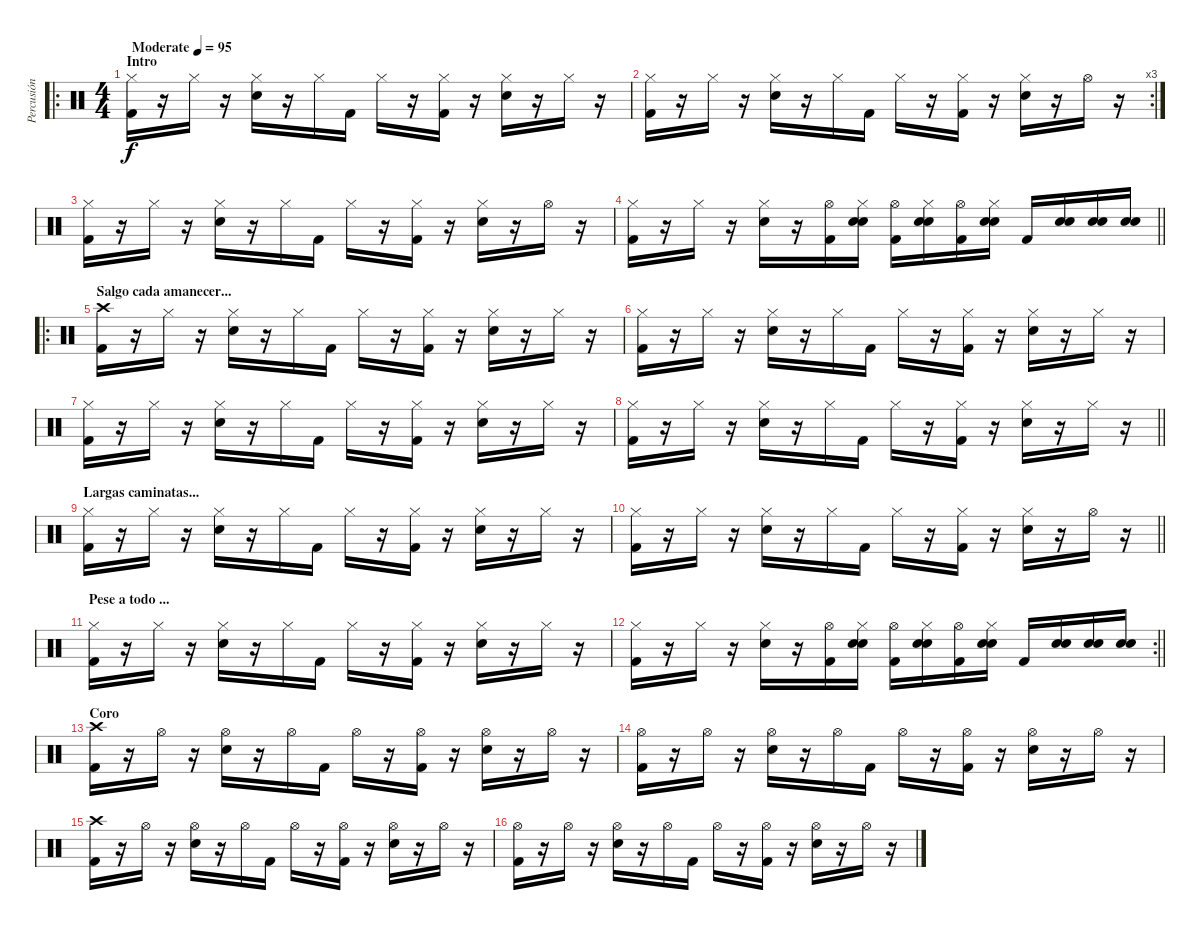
\track ("Percusión" "Percusión") {instrument percussion}
\staff {score}
\articulation defaults
\ro
\ts (4 4)
\section ("" "Intro")
\tempo (95 "Moderate")
\clef neutral
\ks c
("Hi-Hat (closed)" "Kick (hit) 2").16{dy f} r.16 "Hi-Hat (closed)".16 r.16 ("Hi-Hat (closed)" "Snare (hit) 2").16 r.16 "Hi-Hat (closed)".16 "Kick (hit) 2".16 "Hi-Hat (closed)".16 r.16 ("Hi-Hat (closed)" "Kick (hit) 2").16 r.16 ("Hi-Hat (closed)" "Snare (hit) 2").16 r.16 "Hi-Hat (closed)".16 r.16 |
\rc 3
("Hi-Hat (closed)" "Kick (hit) 2").16 r.16 "Hi-Hat (closed)".16 r.16 ("Hi-Hat (closed)" "Snare (hit) 2").16 r.16 "Hi-Hat (closed)".16 "Kick (hit) 2".16 "Hi-Hat (closed)".16 r.16 ("Hi-Hat (closed)" "Kick (hit) 2").16 r.16 ("Hi-Hat (closed)" "Snare (hit) 2").16 r.16 "Hi-Hat (open)".16 r.16 |
("Hi-Hat (closed)" "Kick (hit) 2").16 r.16 "Hi-Hat (closed)".16 r.16 ("Hi-Hat (closed)" "Snare (hit) 2").16 r.16 "Hi-Hat (closed)".16 "Kick (hit) 2".16 "Hi-Hat (closed)".16 r.16 ("Hi-Hat (closed)" "Kick (hit) 2").16 r.16 ("Hi-Hat (closed)" "Snare (hit) 2").16 r.16 "Hi-Hat (open)".16 r.16 |
\barLineRight lightlight
("Hi-Hat (closed)" "Kick (hit) 2").16 r.16 "Hi-Hat (closed)".16 r.16 ("Hi-Hat (closed)" "Snare (hit) 2").16 r.16 ("Hi-Hat (open)" "Kick (hit) 2").16 ("Hi-Hat (closed)" "Snare (hit) 2" "Snare (hit) 2").16 ("Hi-Hat (open)" "Kick (hit) 2").16 ("Hi-Hat (closed)" "Snare (hit) 2" "Snare (hit) 2").16 ("Hi-Hat (open)" "Kick (hit) 2").16 ("Hi-Hat (closed)" "Snare (hit) 2" "Snare (hit) 2").16 "Kick (hit) 2".16 ("Snare (hit) 2" "Snare (hit) 2").16 ("Snare (hit) 2" "Snare (hit) 2").16 ("Snare (hit) 2" "Snare (hit) 2").16 |
\ro
\section ("" "Salgo cada amanecer...")
("Crash high (hit)" "Kick (hit) 2").16 r.16 "Hi-Hat (closed)".16 r.16 ("Hi-Hat (closed)" "Snare (hit) 2").16 r.16 "Hi-Hat (closed)".16 "Kick (hit) 2".16 "Hi-Hat (closed)".16 r.16 ("Hi-Hat (closed)" "Kick (hit) 2").16 r.16 ("Hi-Hat (closed)" "Snare (hit) 2").16 r.16 "Hi-Hat (closed)".16 r.16 |
("Hi-Hat (closed)" "Kick (hit) 2").16 r.16 "Hi-Hat (closed)".16 r.16 ("Hi-Hat (closed)" "Snare (hit) 2").16 r.16 "Hi-Hat (closed)".16 "Kick (hit) 2".16 "Hi-Hat (closed)".16 r.16 ("Hi-Hat (closed)" "Kick (hit) 2").16 r.16 ("Hi-Hat (closed)" "Snare (hit) 2").16 r.16 "Hi-Hat (closed)".16 r.16 |
("Hi-Hat (closed)" "Kick (hit) 2").16 r.16 "Hi-Hat (closed)".16 r.16 ("Hi-Hat (closed)" "Snare (hit) 2").16 r.16 "Hi-Hat (closed)".16 "Kick (hit) 2".16 "Hi-Hat (closed)".16 r.16 ("Hi-Hat (closed)" "Kick (hit) 2").16 r.16 ("Hi-Hat (closed)" "Snare (hit) 2").16 r.16 "Hi-Hat (closed)".16 r.16 |
\barLineRight lightlight
("Hi-Hat (closed)" "Kick (hit) 2").16 r.16 "Hi-Hat (closed)".16 r.16 ("Hi-Hat (closed)" "Snare (hit) 2").16 r.16 "Hi-Hat (closed)".16 "Kick (hit) 2".16 "Hi-Hat (closed)".16 r.16 ("Hi-Hat (closed)" "Kick (hit) 2").16 r.16 ("Hi-Hat (closed)" "Snare (hit) 2").16 r.16 "Hi-Hat (closed)".16 r.16 |
\section ("" "Largas caminatas...")
("Hi-Hat (closed)" "Kick (hit) 2").16 r.16 "Hi-Hat (closed)".16 r.16 ("Hi-Hat (closed)" "Snare (hit) 2").16 r.16 "Hi-Hat (closed)".16 "Kick (hit) 2".16 "Hi-Hat (closed)".16 r.16 ("Hi-Hat (closed)" "Kick (hit) 2").16 r.16 ("Hi-Hat (closed)" "Snare (hit) 2").16 r.16 "Hi-Hat (closed)".16 r.16 |
\barLineRight lightlight
("Hi-Hat (closed)" "Kick (hit) 2").16 r.16 "Hi-Hat (closed)".16 r.16 ("Hi-Hat (closed)" "Snare (hit) 2").16 r.16 "Hi-Hat (closed)".16 "Kick (hit) 2".16 "Hi-Hat (closed)".16 r.16 ("Hi-Hat (closed)" "Kick (hit) 2").16 r.16 ("Hi-Hat (closed)" "Snare (hit) 2").16 r.16 "Hi-Hat (open)".16 r.16 |
\section ("" "Pese a todo ...")
("Hi-Hat (closed)" "Kick (hit) 2").16 r.16 "Hi-Hat (closed)".16 r.16 ("Hi-Hat (closed)" "Snare (hit) 2").16 r.16 "Hi-Hat (closed)".16 "Kick (hit) 2".16 "Hi-Hat (closed)".16 r.16 ("Hi-Hat (closed)" "Kick (hit) 2").16 r.16 ("Hi-Hat (closed)" "Snare (hit) 2").16 r.16 "Hi-Hat (closed)".16 r.16 |
\rc 2
\barLineRight lightlight
("Hi-Hat (closed)" "Kick (hit) 2").16 r.16 "Hi-Hat (closed)".16 r.16 ("Hi-Hat (closed)" "Snare (hit) 2").16 r.16 ("Hi-Hat (open)" "Kick (hit) 2").16 ("Hi-Hat (closed)" "Snare (hit) 2" "Snare (hit) 2").16 ("Hi-Hat (open)" "Kick (hit) 2").16 ("Hi-Hat (closed)" "Snare (hit) 2" "Snare (hit) 2").16 ("Hi-Hat (open)" "Kick (hit) 2").16 ("Hi-Hat (closed)" "Snare (hit) 2" "Snare (hit) 2").16 "Kick (hit) 2".16 ("Snare (hit) 2" "Snare (hit) 2").16 ("Snare (hit) 2" "Snare (hit) 2").16 ("Snare (hit) 2" "Snare (hit) 2").16 |
\section ("" "Coro")
("Crash high (hit)" "Kick (hit) 2").16 r.16 "Hi-Hat (open)".16 r.16 ("Hi-Hat (open)" "Snare (hit) 2").16 r.16 "Hi-Hat (open)".16 "Kick (hit) 2".16 "Hi-Hat (open)".16 r.16 ("Hi-Hat (open)" "Kick (hit) 2").16 r.16 ("Hi-Hat (open)" "Snare (hit) 2").16 r.16 "Hi-Hat (open)".16 r.16 |
("Hi-Hat (open)" "Kick (hit) 2").16 r.16 "Hi-Hat (open)".16 r.16 ("Hi-Hat (open)" "Snare (hit) 2").16 r.16 "Hi-Hat (open)".16 "Kick (hit) 2".16 "Hi-Hat (open)".16 r.16 ("Hi-Hat (open)" "Kick (hit) 2").16 r.16 ("Hi-Hat (open)" "Snare (hit) 2").16 r.16 "Hi-Hat (open)".16 r.16 |
("Crash high (hit)" "Kick (hit) 2").16 r.16 "Hi-Hat (open)".16 r.16 ("Hi-Hat (open)" "Snare (hit) 2").16 r.16 "Hi-Hat (open)".16 "Kick (hit) 2".16 "Hi-Hat (open)".16 r.16 ("Hi-Hat (open)" "Kick (hit) 2").16 r.16 ("Hi-Hat (open)" "Snare (hit) 2").16 r.16 "Hi-Hat (open)".16 r.16 |
("Hi-Hat (open)" "Kick (hit) 2").16 r.16 "Hi-Hat (open)".16 r.16 ("Hi-Hat (open)" "Snare (hit) 2").16 r.16 "Hi-Hat (open)".16 "Kick (hit) 2".16 "Hi-Hat (open)".16 r.16 ("Hi-Hat (open)" "Kick (hit) 2").16 r.16 ("Hi-Hat (open)" "Snare (hit) 2").16 r.16 "Hi-Hat (open)".16 r.16
